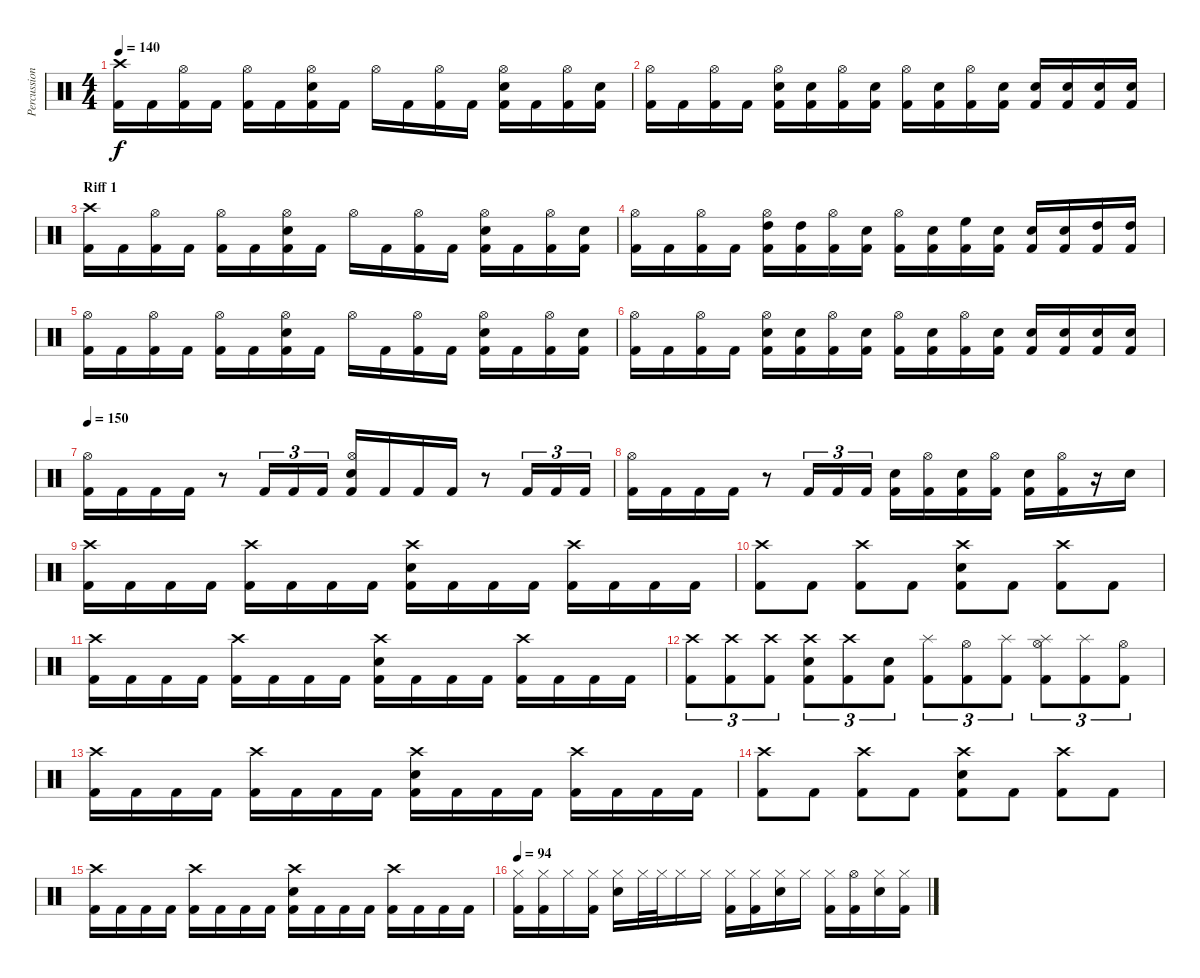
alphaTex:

\track ("Percussion" "Percussion") {instrument percussion}
\staff {score}
\articulation defaults
\ts (4 4)
\tempo 140
\clef neutral
\ks c
("Crash high (hit)" "Kick (hit) 2").16{dy f} "Kick (hit) 2".16 ("Hi-Hat (open)" "Kick (hit) 2").16 "Kick (hit) 2".16 ("Hi-Hat (open)" "Kick (hit) 2").16 "Kick (hit) 2".16 ("Hi-Hat (open)" "Electric Snare (hit)" "Kick (hit) 2").16 "Kick (hit) 2".16 "Hi-Hat (open)".16 "Kick (hit) 2".16 ("Hi-Hat (open)" "Kick (hit) 2").16 "Kick (hit) 2".16 ("Hi-Hat (open)" "Electric Snare (hit)" "Kick (hit) 2").16 "Kick (hit) 2".16 ("Hi-Hat (open)" "Kick (hit) 2").16 ("Electric Snare (hit)" "Kick (hit) 2").16 |
("Hi-Hat (open)" "Kick (hit) 2").16 "Kick (hit) 2".16 ("Hi-Hat (open)" "Kick (hit) 2").16 "Kick (hit) 2".16 ("Hi-Hat (open)" "Electric Snare (hit)" "Kick (hit) 2").16 ("Electric Snare (hit)" "Kick (hit) 2").16 ("Hi-Hat (open)" "Kick (hit) 2").16 ("Electric Snare (hit)" "Kick (hit) 2").16 ("Hi-Hat (open)" "Kick (hit) 2").16 ("Electric Snare (hit)" "Kick (hit) 2").16 ("Hi-Hat (open)" "Kick (hit) 2").16 ("Electric Snare (hit)" "Kick (hit) 2").16 ("Electric Snare (hit)" "Kick (hit) 2").16 ("Electric Snare (hit)" "Kick (hit) 2").16 ("Electric Snare (hit)" "Kick (hit) 2").16 ("Electric Snare (hit)" "Kick (hit) 2").16 |
\section ("" "Riff 1")
("Crash high (hit)" "Kick (hit) 2").16 "Kick (hit) 2".16 ("Hi-Hat (open)" "Kick (hit) 2").16 "Kick (hit) 2".16 ("Hi-Hat (open)" "Kick (hit) 2").16 "Kick (hit) 2".16 ("Hi-Hat (open)" "Electric Snare (hit)" "Kick (hit) 2").16 "Kick (hit) 2".16 "Hi-Hat (open)".16 "Kick (hit) 2".16 ("Hi-Hat (open)" "Kick (hit) 2").16 "Kick (hit) 2".16 ("Hi-Hat (open)" "Electric Snare (hit)" "Kick (hit) 2").16 "Kick (hit) 2".16 ("Hi-Hat (open)" "Kick (hit) 2").16 ("Electric Snare (hit)" "Kick (hit) 2").16 |
("Hi-Hat (open)" "Kick (hit) 2").16 "Kick (hit) 2".16 ("Hi-Hat (open)" "Kick (hit) 2").16 "Kick (hit) 2".16 ("High Tom (hit)" "Hi-Hat (open)" "Kick (hit) 2").16 ("High Tom (hit)" "Kick (hit) 2").16 ("Hi-Hat (open)" "Kick (hit) 2").16 ("Electric Snare (hit)" "Kick (hit) 2").16 ("Hi-Hat (open)" "Kick (hit) 2").16 ("Electric Snare (hit)" "Kick (hit) 2").16 ("High Floor Tom (hit)" "Kick (hit) 2").16 ("Electric Snare (hit)" "Kick (hit) 2").16 ("Electric Snare (hit)" "Kick (hit) 2").16 ("Electric Snare (hit)" "Kick (hit) 2").16 ("High Tom (hit)" "Kick (hit) 2").16 ("High Tom (hit)" "Kick (hit) 2").16 |
("Hi-Hat (open)" "Kick (hit) 2").16 "Kick (hit) 2".16 ("Hi-Hat (open)" "Kick (hit) 2").16 "Kick (hit) 2".16 ("Hi-Hat (open)" "Kick (hit) 2").16 "Kick (hit) 2".16 ("Hi-Hat (open)" "Electric Snare (hit)" "Kick (hit) 2").16 "Kick (hit) 2".16 "Hi-Hat (open)".16 "Kick (hit) 2".16 ("Hi-Hat (open)" "Kick (hit) 2").16 "Kick (hit) 2".16 ("Hi-Hat (open)" "Electric Snare (hit)" "Kick (hit) 2").16 "Kick (hit) 2".16 ("Hi-Hat (open)" "Kick (hit) 2").16 ("Electric Snare (hit)" "Kick (hit) 2").16 |
("Hi-Hat (open)" "Kick (hit) 2").16 "Kick (hit) 2".16 ("Hi-Hat (open)" "Kick (hit) 2").16 "Kick (hit) 2".16 ("Hi-Hat (open)" "Electric Snare (hit)" "Kick (hit) 2").16 ("Electric Snare (hit)" "Kick (hit) 2").16 ("Hi-Hat (open)" "Kick (hit) 2").16 ("Electric Snare (hit)" "Kick (hit) 2").16 ("Hi-Hat (open)" "Kick (hit) 2").16 ("Electric Snare (hit)" "Kick (hit) 2").16 ("Hi-Hat (open)" "Kick (hit) 2").16 ("Electric Snare (hit)" "Kick (hit) 2").16 ("Electric Snare (hit)" "Kick (hit) 2").16 ("Electric Snare (hit)" "Kick (hit) 2").16 ("Electric Snare (hit)" "Kick (hit) 2").16 ("Electric Snare (hit)" "Kick (hit) 2").16 |
\tempo 150
("Hi-Hat (open)" "Kick (hit) 2").16 "Kick (hit) 2".16 "Kick (hit) 2".16 "Kick (hit) 2".16 r.8 "Kick (hit) 2".16{tu (3 2)} "Kick (hit) 2".16{tu (3 2)} "Kick (hit) 2".16{tu (3 2)} ("Hi-Hat (open)" "Electric Snare (hit)" "Kick (hit) 2").16 "Kick (hit) 2".16 "Kick (hit) 2".16 "Kick (hit) 2".16 r.8 "Kick (hit) 2".16{tu (3 2)} "Kick (hit) 2".16{tu (3 2)} "Kick (hit) 2".16{tu (3 2)} |
("Hi-Hat (open)" "Kick (hit) 2").16 "Kick (hit) 2".16 "Kick (hit) 2".16 "Kick (hit) 2".16 r.8 "Kick (hit) 2".16{tu (3 2)} "Kick (hit) 2".16{tu (3 2)} "Kick (hit) 2".16{tu (3 2)} ("Electric Snare (hit)" "Kick (hit) 2").16 ("Hi-Hat (open)" "Kick (hit) 2").16 ("Electric Snare (hit)" "Kick (hit) 2").16 ("Hi-Hat (open)" "Kick (hit) 2").16 ("Electric Snare (hit)" "Kick (hit) 2").16 ("Hi-Hat (open)" "Kick (hit) 2").16 r.16 "Electric Snare (hit)".16 |
("Crash high (hit)" "Kick (hit) 2").16 "Kick (hit) 2".16 "Kick (hit) 2".16 "Kick (hit) 2".16 ("Crash high (hit)" "Kick (hit) 2").16 "Kick (hit) 2".16 "Kick (hit) 2".16 "Kick (hit) 2".16 ("Crash high (hit)" "Electric Snare (hit)" "Kick (hit) 2").16 "Kick (hit) 2".16 "Kick (hit) 2".16 "Kick (hit) 2".16 ("Crash high (hit)" "Kick (hit) 2").16 "Kick (hit) 2".16 "Kick (hit) 2".16 "Kick (hit) 2".16 |
("Crash high (hit)" "Kick (hit) 2").8 "Kick (hit) 2".8 ("Crash high (hit)" "Kick (hit) 2").8 "Kick (hit) 2".8 ("Crash high (hit)" "Electric Snare (hit)" "Kick (hit) 2").8 "Kick (hit) 2".8 ("Crash high (hit)" "Kick (hit) 2").8 "Kick (hit) 2".8 |
("Crash high (hit)" "Kick (hit) 2").16 "Kick (hit) 2".16 "Kick (hit) 2".16 "Kick (hit) 2".16 ("Crash high (hit)" "Kick (hit) 2").16 "Kick (hit) 2".16 "Kick (hit) 2".16 "Kick (hit) 2".16 ("Crash high (hit)" "Electric Snare (hit)" "Kick (hit) 2").16 "Kick (hit) 2".16 "Kick (hit) 2".16 "Kick (hit) 2".16 ("Crash high (hit)" "Kick (hit) 2").16 "Kick (hit) 2".16 "Kick (hit) 2".16 "Kick (hit) 2".16 |
("Crash high (hit)" "Kick (hit) 2").8{tu (3 2)} ("Crash high (hit)" "Kick (hit) 2").8{tu (3 2)} ("Crash high (hit)" "Kick (hit) 2").8{tu (3 2)} ("Crash high (hit)" "Electric Snare (hit)" "Kick (hit) 2").8{tu (3 2)} ("Crash high (hit)" "Kick (hit) 2").8{tu (3 2)} ("Electric Snare (hit)" "Kick (hit) 2").8{tu (3 2)} ("Splash (hit)" "Kick (hit) 2").8{tu (3 2)} ("Hi-Hat (open)" "Kick (hit) 2").8{tu (3 2)} ("Splash (hit)" "Kick (hit) 2").8{tu (3 2)} ("Splash (hit)" "Hi-Hat (open)" "Kick (hit) 2").8{tu (3 2)} ("Splash (hit)" "Kick (hit) 2").8{tu (3 2)} ("Hi-Hat (open)" "Kick (hit) 2").8{tu (3 2)} |
("Crash high (hit)" "Kick (hit) 2").16 "Kick (hit) 2".16 "Kick (hit) 2".16 "Kick (hit) 2".16 ("Crash high (hit)" "Kick (hit) 2").16 "Kick (hit) 2".16 "Kick (hit) 2".16 "Kick (hit) 2".16 ("Crash high (hit)" "Electric Snare (hit)" "Kick (hit) 2").16 "Kick (hit) 2".16 "Kick (hit) 2".16 "Kick (hit) 2".16 ("Crash high (hit)" "Kick (hit) 2").16 "Kick (hit) 2".16 "Kick (hit) 2".16 "Kick (hit) 2".16 |
("Crash high (hit)" "Kick (hit) 2").8 "Kick (hit) 2".8 ("Crash high (hit)" "Kick (hit) 2").8 "Kick (hit) 2".8 ("Crash high (hit)" "Electric Snare (hit)" "Kick (hit) 2").8 "Kick (hit) 2".8 ("Crash high (hit)" "Kick (hit) 2").8 "Kick (hit) 2".8 |
("Crash high (hit)" "Kick (hit) 2").16 "Kick (hit) 2".16 "Kick (hit) 2".16 "Kick (hit) 2".16 ("Crash high (hit)" "Kick (hit) 2").16 "Kick (hit) 2".16 "Kick (hit) 2".16 "Kick (hit) 2".16 ("Crash high (hit)" "Electric Snare (hit)" "Kick (hit) 2").16 "Kick (hit) 2".16 "Kick (hit) 2".16 "Kick (hit) 2".16 ("Crash high (hit)" "Kick (hit) 2").16 "Kick (hit) 2".16 "Kick (hit) 2".16 "Kick (hit) 2".16 |
\tempo 94
("Hi-Hat (closed)" "Kick (hit) 2").16 ("Hi-Hat (closed)" "Kick (hit) 2").16 "Hi-Hat (closed)".16 ("Hi-Hat (closed)" "Kick (hit) 2").16 ("Hi-Hat (closed)" "Electric Snare (hit)").16 "Hi-Hat (closed)".32 "Hi-Hat (closed)".32 "Hi-Hat (closed)".16 "Hi-Hat (closed)".16 ("Hi-Hat (closed)" "Kick (hit) 2").16 ("Hi-Hat (closed)" "Kick (hit) 2").16 ("Hi-Hat (closed)" "Electric Snare (hit)").16 "Hi-Hat (closed)".16 ("Hi-Hat (closed)" "Kick (hit) 2").16 ("Hi-Hat (open)" "Kick (hit) 2").16 ("Hi-Hat (closed)" "Electric Snare (hit)").16 ("Hi-Hat (closed)" "Kick (hit) 2").16
